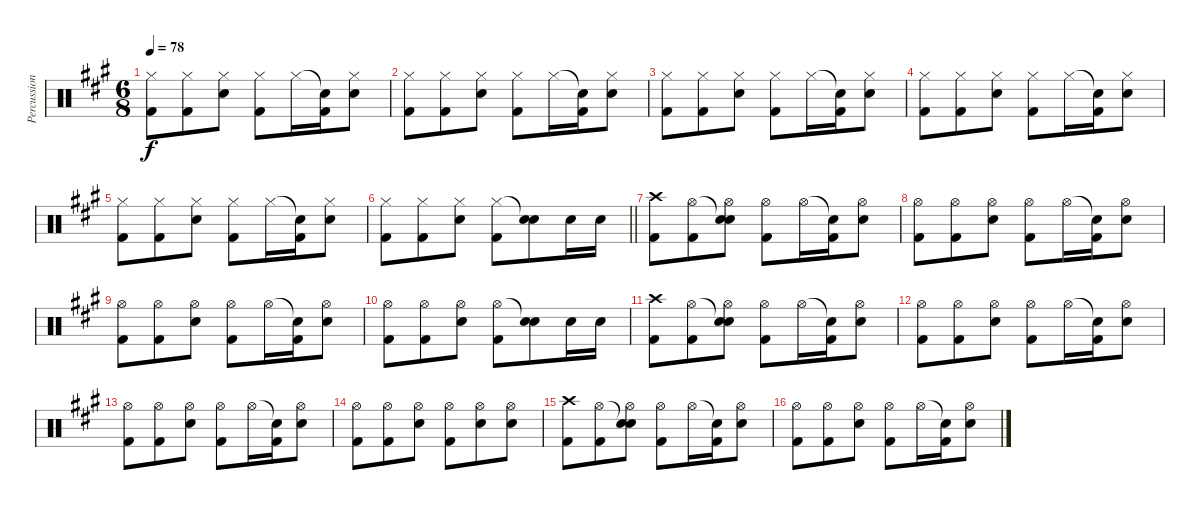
\track ("Percussions" "Percussion") {instrument percussion}
\staff {score}
\articulation defaults
\ts (6 8)
\tempo 78
\clef neutral
\ks a
("Hi-Hat (closed)" "Kick (hit) 2").8{dy f} ("Hi-Hat (closed)" "Kick (hit) 2").8 ("Hi-Hat (closed)" "Snare (hit) 2").8 ("Hi-Hat (closed)" "Kick (hit) 2").8 "Hi-Hat (closed)".16 ("Snare (hit)"{t} "Kick (hit) 2").16 ("Hi-Hat (closed)" "Snare (hit) 2").8 |
("Hi-Hat (closed)" "Kick (hit) 2").8 ("Hi-Hat (closed)" "Kick (hit) 2").8 ("Hi-Hat (closed)" "Snare (hit) 2").8 ("Hi-Hat (closed)" "Kick (hit) 2").8 "Hi-Hat (closed)".16 ("Snare (hit)"{t} "Kick (hit) 2").16 ("Hi-Hat (closed)" "Snare (hit) 2").8 |
("Hi-Hat (closed)" "Kick (hit) 2").8 ("Hi-Hat (closed)" "Kick (hit) 2").8 ("Hi-Hat (closed)" "Snare (hit) 2").8 ("Hi-Hat (closed)" "Kick (hit) 2").8 "Hi-Hat (closed)".16 ("Snare (hit)"{t} "Kick (hit) 2").16 ("Hi-Hat (closed)" "Snare (hit) 2").8 |
("Hi-Hat (closed)" "Kick (hit) 2").8 ("Hi-Hat (closed)" "Kick (hit) 2").8 ("Hi-Hat (closed)" "Snare (hit) 2").8 ("Hi-Hat (closed)" "Kick (hit) 2").8 "Hi-Hat (closed)".16 ("Snare (hit)"{t} "Kick (hit) 2").16 ("Hi-Hat (closed)" "Snare (hit) 2").8 |
("Hi-Hat (closed)" "Kick (hit) 2").8 ("Hi-Hat (closed)" "Kick (hit) 2").8 ("Hi-Hat (closed)" "Snare (hit) 2").8 ("Hi-Hat (closed)" "Kick (hit) 2").8 "Hi-Hat (closed)".16 ("Snare (hit)"{t} "Kick (hit) 2").16 ("Hi-Hat (closed)" "Snare (hit) 2").8 |
\barLineRight lightlight
("Hi-Hat (closed)" "Kick (hit) 2").8 ("Hi-Hat (closed)" "Kick (hit) 2").8 ("Hi-Hat (closed)" "Snare (hit) 2").8 ("Hi-Hat (closed)" "Kick (hit) 2").8 ("Snare (hit)"{t} "Snare (hit) 2").8 "Snare (hit) 2".16 "Snare (hit) 2".16 |
("Crash high (hit)" "Kick (hit) 2").8 ("Hi-Hat (open)" "Kick (hit) 2").8 ("Snare (hit)"{t} "Hi-Hat (open)" "Snare (hit) 2").8 ("Hi-Hat (open)" "Kick (hit) 2").8 "Hi-Hat (open)".16 ("Snare (hit)"{t} "Kick (hit) 2").16 ("Hi-Hat (open)" "Snare (hit) 2").8 |
("Hi-Hat (open)" "Kick (hit) 2").8 ("Hi-Hat (open)" "Kick (hit) 2").8 ("Hi-Hat (open)" "Snare (hit) 2").8 ("Hi-Hat (open)" "Kick (hit) 2").8 "Hi-Hat (open)".16 ("Snare (hit)"{t} "Kick (hit) 2").16 ("Hi-Hat (open)" "Snare (hit) 2").8 |
("Hi-Hat (open)" "Kick (hit) 2").8 ("Hi-Hat (open)" "Kick (hit) 2").8 ("Hi-Hat (open)" "Snare (hit) 2").8 ("Hi-Hat (open)" "Kick (hit) 2").8 "Hi-Hat (open)".16 ("Snare (hit)"{t} "Kick (hit) 2").16 ("Hi-Hat (open)" "Snare (hit) 2").8 |
("Hi-Hat (open)" "Kick (hit) 2").8 ("Hi-Hat (open)" "Kick (hit) 2").8 ("Hi-Hat (open)" "Snare (hit) 2").8 ("Hi-Hat (open)" "Kick (hit) 2").8 ("Snare (hit)"{t} "Snare (hit) 2").8 "Snare (hit) 2".16 "Snare (hit) 2".16 |
("Crash high (hit)" "Kick (hit) 2").8 ("Hi-Hat (open)" "Kick (hit) 2").8 ("Snare (hit)"{t} "Hi-Hat (open)" "Snare (hit) 2").8 ("Hi-Hat (open)" "Kick (hit) 2").8 "Hi-Hat (open)".16 ("Snare (hit)"{t} "Kick (hit) 2").16 ("Hi-Hat (open)" "Snare (hit) 2").8 |
("Hi-Hat (open)" "Kick (hit) 2").8 ("Hi-Hat (open)" "Kick (hit) 2").8 ("Hi-Hat (open)" "Snare (hit) 2").8 ("Hi-Hat (open)" "Kick (hit) 2").8 "Hi-Hat (open)".16 ("Snare (hit)"{t} "Kick (hit) 2").16 ("Hi-Hat (open)" "Snare (hit) 2").8 |
("Hi-Hat (open)" "Kick (hit) 2").8 ("Hi-Hat (open)" "Kick (hit) 2").8 ("Hi-Hat (open)" "Snare (hit) 2").8 ("Hi-Hat (open)" "Kick (hit) 2").8 "Hi-Hat (open)".16 ("Snare (hit)"{t} "Kick (hit) 2").16 ("Hi-Hat (open)" "Snare (hit) 2").8 |
("Hi-Hat (open)" "Kick (hit) 2").8 ("Hi-Hat (open)" "Kick (hit) 2").8 ("Hi-Hat (open)" "Snare (hit) 2").8 ("Hi-Hat (open)" "Kick (hit) 2").8 ("Hi-Hat (open)" "Snare (hit) 2").8 ("Hi-Hat (open)" "Snare (hit) 2").8 |
("Crash high (hit)" "Kick (hit) 2").8 ("Hi-Hat (open)" "Kick (hit) 2").8 ("Snare (hit)"{t} "Hi-Hat (open)" "Snare (hit) 2").8 ("Hi-Hat (open)" "Kick (hit) 2").8 "Hi-Hat (open)".16 ("Snare (hit)"{t} "Kick (hit) 2").16 ("Hi-Hat (open)" "Snare (hit) 2").8 |
("Hi-Hat (open)" "Kick (hit) 2").8 ("Hi-Hat (open)" "Kick (hit) 2").8 ("Hi-Hat (open)" "Snare (hit) 2").8 ("Hi-Hat (open)" "Kick (hit) 2").8 "Hi-Hat (open)".16 ("Snare (hit)"{t} "Kick (hit) 2").16 ("Hi-Hat (open)" "Snare (hit) 2").8
